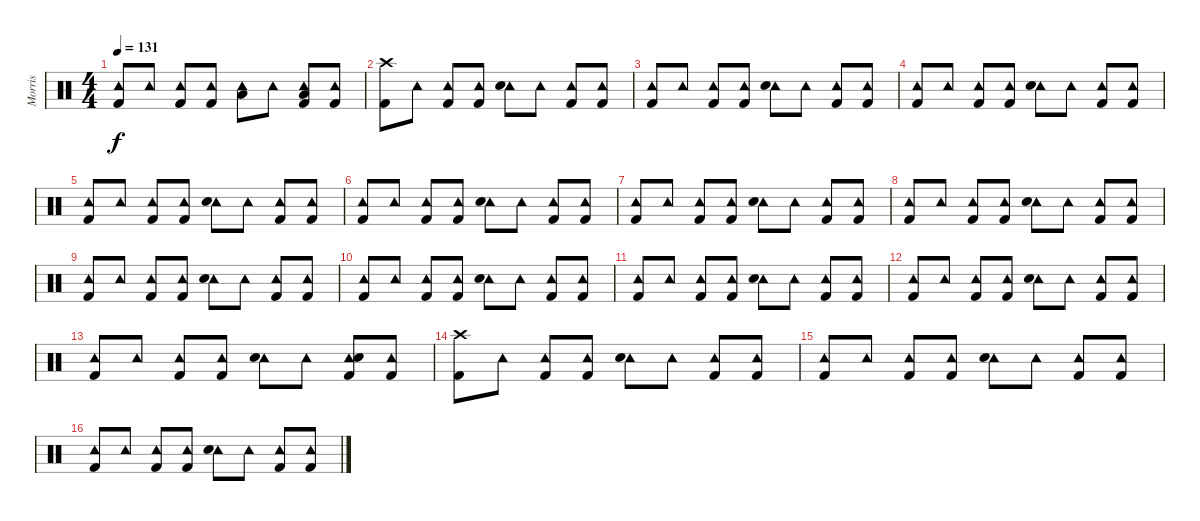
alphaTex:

\track ("Morris" "Morris") {instrument percussion}
\staff {score}
\articulation defaults
\ts (4 4)
\tempo 131
\clef neutral
\ks c
("Tambourine (hit)" "Kick (hit) 2").8{dy f} "Tambourine (hit)".8 ("Tambourine (hit)" "Kick (hit) 2").8 ("Tambourine (hit)" "Kick (hit) 2").8 ("Tambourine (hit)" "Low Tom (hit)").8 "Tambourine (hit)".8 ("Tambourine (hit)" "Low Tom (hit)" "Kick (hit) 2").8 ("Tambourine (hit)" "Kick (hit) 2").8 |
("Crash high (hit)" "Kick (hit) 2").8 "Tambourine (hit)".8 ("Tambourine (hit)" "Kick (hit) 2").8 ("Tambourine (hit)" "Kick (hit) 2").8 ("Tambourine (hit)" "Electric Snare (hit)").8 "Tambourine (hit)".8 ("Tambourine (hit)" "Kick (hit) 2").8 ("Tambourine (hit)" "Kick (hit) 2").8 |
("Tambourine (hit)" "Kick (hit) 2").8 "Tambourine (hit)".8 ("Tambourine (hit)" "Kick (hit) 2").8 ("Tambourine (hit)" "Kick (hit) 2").8 ("Tambourine (hit)" "Electric Snare (hit)").8 "Tambourine (hit)".8 ("Tambourine (hit)" "Kick (hit) 2").8 ("Tambourine (hit)" "Kick (hit) 2").8 |
("Tambourine (hit)" "Kick (hit) 2").8 "Tambourine (hit)".8 ("Tambourine (hit)" "Kick (hit) 2").8 ("Tambourine (hit)" "Kick (hit) 2").8 ("Tambourine (hit)" "Electric Snare (hit)").8 "Tambourine (hit)".8 ("Tambourine (hit)" "Kick (hit) 2").8 ("Tambourine (hit)" "Kick (hit) 2").8 |
("Tambourine (hit)" "Kick (hit) 2").8 "Tambourine (hit)".8 ("Tambourine (hit)" "Kick (hit) 2").8 ("Tambourine (hit)" "Kick (hit) 2").8 ("Tambourine (hit)" "Electric Snare (hit)").8 "Tambourine (hit)".8 ("Tambourine (hit)" "Kick (hit) 2").8 ("Tambourine (hit)" "Kick (hit) 2").8 |
("Tambourine (hit)" "Kick (hit) 2").8 "Tambourine (hit)".8 ("Tambourine (hit)" "Kick (hit) 2").8 ("Tambourine (hit)" "Kick (hit) 2").8 ("Tambourine (hit)" "Electric Snare (hit)").8 "Tambourine (hit)".8 ("Tambourine (hit)" "Kick (hit) 2").8 ("Tambourine (hit)" "Kick (hit) 2").8 |
("Tambourine (hit)" "Kick (hit) 2").8 "Tambourine (hit)".8 ("Tambourine (hit)" "Kick (hit) 2").8 ("Tambourine (hit)" "Kick (hit) 2").8 ("Tambourine (hit)" "Electric Snare (hit)").8 "Tambourine (hit)".8 ("Tambourine (hit)" "Kick (hit) 2").8 ("Tambourine (hit)" "Kick (hit) 2").8 |
("Tambourine (hit)" "Kick (hit) 2").8 "Tambourine (hit)".8 ("Tambourine (hit)" "Kick (hit) 2").8 ("Tambourine (hit)" "Kick (hit) 2").8 ("Tambourine (hit)" "Electric Snare (hit)").8 "Tambourine (hit)".8 ("Tambourine (hit)" "Kick (hit) 2").8 ("Tambourine (hit)" "Kick (hit) 2").8 |
("Tambourine (hit)" "Kick (hit) 2").8 "Tambourine (hit)".8 ("Tambourine (hit)" "Kick (hit) 2").8 ("Tambourine (hit)" "Kick (hit) 2").8 ("Tambourine (hit)" "Electric Snare (hit)").8 "Tambourine (hit)".8 ("Tambourine (hit)" "Kick (hit) 2").8 ("Tambourine (hit)" "Kick (hit) 2").8 |
("Tambourine (hit)" "Kick (hit) 2").8 "Tambourine (hit)".8 ("Tambourine (hit)" "Kick (hit) 2").8 ("Tambourine (hit)" "Kick (hit) 2").8 ("Tambourine (hit)" "Electric Snare (hit)").8 "Tambourine (hit)".8 ("Tambourine (hit)" "Kick (hit) 2").8 ("Tambourine (hit)" "Kick (hit) 2").8 |
("Tambourine (hit)" "Kick (hit) 2").8 "Tambourine (hit)".8 ("Tambourine (hit)" "Kick (hit) 2").8 ("Tambourine (hit)" "Kick (hit) 2").8 ("Tambourine (hit)" "Electric Snare (hit)").8 "Tambourine (hit)".8 ("Tambourine (hit)" "Kick (hit) 2").8 ("Tambourine (hit)" "Kick (hit) 2").8 |
("Tambourine (hit)" "Kick (hit) 2").8 "Tambourine (hit)".8 ("Tambourine (hit)" "Kick (hit) 2").8 ("Tambourine (hit)" "Kick (hit) 2").8 ("Tambourine (hit)" "Electric Snare (hit)").8 "Tambourine (hit)".8 ("Tambourine (hit)" "Kick (hit) 2").8 ("Tambourine (hit)" "Kick (hit) 2").8 |
("Tambourine (hit)" "Kick (hit) 2").8 "Tambourine (hit)".8 ("Tambourine (hit)" "Kick (hit) 2").8 ("Tambourine (hit)" "Kick (hit) 2").8 ("Tambourine (hit)" "Electric Snare (hit)").8 "Tambourine (hit)".8 ("Tambourine (hit)" "Electric Snare (hit)" "Kick (hit) 2").8 ("Tambourine (hit)" "Kick (hit) 2").8 |
("Crash high (hit)" "Kick (hit) 2").8 "Tambourine (hit)".8 ("Tambourine (hit)" "Kick (hit) 2").8 ("Tambourine (hit)" "Kick (hit) 2").8 ("Tambourine (hit)" "Electric Snare (hit)").8 "Tambourine (hit)".8 ("Tambourine (hit)" "Kick (hit) 2").8 ("Tambourine (hit)" "Kick (hit) 2").8 |
("Tambourine (hit)" "Kick (hit) 2").8 "Tambourine (hit)".8 ("Tambourine (hit)" "Kick (hit) 2").8 ("Tambourine (hit)" "Kick (hit) 2").8 ("Tambourine (hit)" "Electric Snare (hit)").8 "Tambourine (hit)".8 ("Tambourine (hit)" "Kick (hit) 2").8 ("Tambourine (hit)" "Kick (hit) 2").8 |
("Tambourine (hit)" "Kick (hit) 2").8 "Tambourine (hit)".8 ("Tambourine (hit)" "Kick (hit) 2").8 ("Tambourine (hit)" "Kick (hit) 2").8 ("Tambourine (hit)" "Electric Snare (hit)").8 "Tambourine (hit)".8 ("Tambourine (hit)" "Kick (hit) 2").8 ("Tambourine (hit)" "Kick (hit) 2").8
